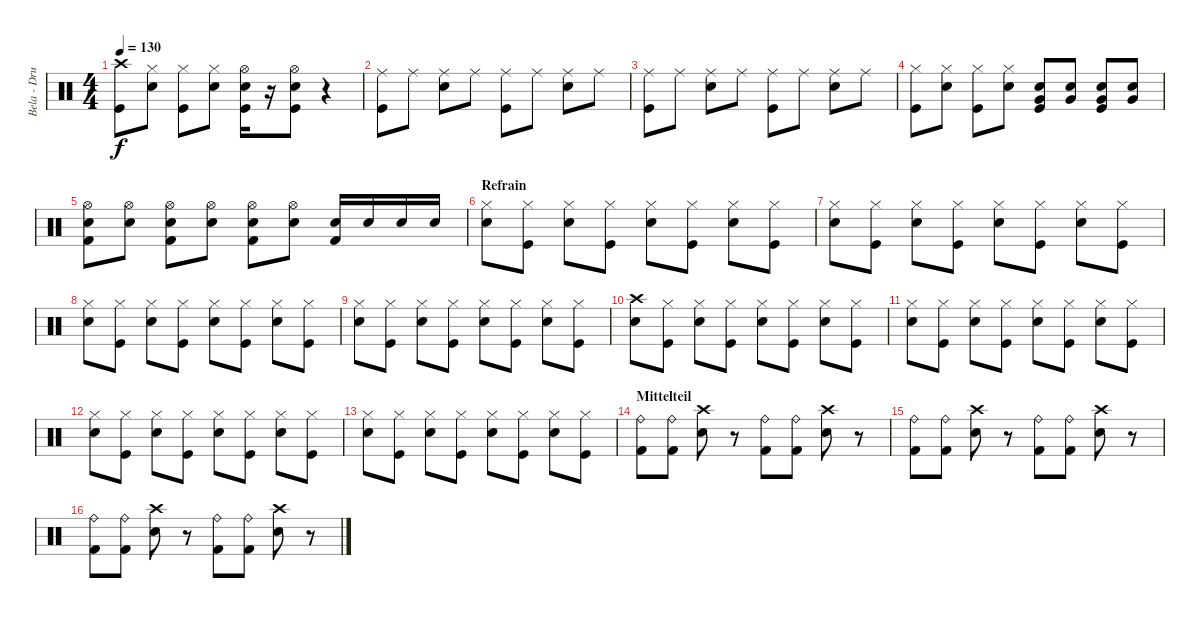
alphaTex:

\track ("Bela - Drums" "Bela - Dru") {instrument percussion}
\staff {score}
\articulation defaults
\ts (4 4)
\tempo 130
\clef neutral
\ks c
("Crash high (hit)" "Kick (hit)").8{dy f} ("Hi-Hat (closed)" "Electric Snare (hit)").8 ("Hi-Hat (closed)" "Kick (hit)").8 ("Hi-Hat (closed)" "Electric Snare (hit)").8 ("Hi-Hat (open)" "Electric Snare (hit)" "Kick (hit)").16 r.16 ("Hi-Hat (open)" "Electric Snare (hit)" "Kick (hit)").8 r.4 |
("Ride (middle)" "Kick (hit)").8 "Ride (middle)".8 ("Ride (middle)" "Electric Snare (hit)").8 "Ride (middle)".8 ("Ride (middle)" "Kick (hit)").8 "Ride (middle)".8 ("Ride (middle)" "Electric Snare (hit)").8 "Ride (middle)".8 |
("Ride (middle)" "Kick (hit)").8 "Ride (middle)".8 ("Ride (middle)" "Electric Snare (hit)").8 "Ride (middle)".8 ("Ride (middle)" "Kick (hit)").8 "Ride (middle)".8 ("Ride (middle)" "Electric Snare (hit)").8 "Ride (middle)".8 |
("Hi-Hat (closed)" "Kick (hit)").8 ("Hi-Hat (closed)" "Electric Snare (hit)").8 ("Hi-Hat (closed)" "Kick (hit)").8 ("Hi-Hat (closed)" "Electric Snare (hit)").8 ("Very Low Tom (hit)" "Electric Snare (hit)" "Kick (hit)").8 ("Very Low Tom (hit)" "Electric Snare (hit)").8 ("Very Low Tom (hit)" "Electric Snare (hit)" "Kick (hit)").8 ("Very Low Tom (hit)" "Electric Snare (hit)").8 |
("Hi-Hat (open)" "Electric Snare (hit)" "Kick (hit) 2").8 ("Hi-Hat (open)" "Electric Snare (hit)").8 ("Hi-Hat (open)" "Electric Snare (hit)" "Kick (hit) 2").8 ("Hi-Hat (open)" "Electric Snare (hit)").8 ("Hi-Hat (open)" "Electric Snare (hit)" "Kick (hit) 2").8 ("Hi-Hat (open)" "Electric Snare (hit)").8 ("Electric Snare (hit)" "Kick (hit) 2").16 "Electric Snare (hit)".16 "Electric Snare (hit)".16 "Electric Snare (hit)".16 |
\section ("" "Refrain")
("Hi-Hat (closed)" "Electric Snare (hit)").8 ("Hi-Hat (closed)" "Kick (hit)").8 ("Hi-Hat (closed)" "Electric Snare (hit)").8 ("Hi-Hat (closed)" "Kick (hit)").8 ("Hi-Hat (closed)" "Electric Snare (hit)").8 ("Hi-Hat (closed)" "Kick (hit)").8 ("Hi-Hat (closed)" "Electric Snare (hit)").8 ("Hi-Hat (closed)" "Kick (hit)").8 |
("Hi-Hat (closed)" "Electric Snare (hit)").8 ("Hi-Hat (closed)" "Kick (hit)").8 ("Hi-Hat (closed)" "Electric Snare (hit)").8 ("Hi-Hat (closed)" "Kick (hit)").8 ("Hi-Hat (closed)" "Electric Snare (hit)").8 ("Hi-Hat (closed)" "Kick (hit)").8 ("Hi-Hat (closed)" "Electric Snare (hit)").8 ("Hi-Hat (closed)" "Kick (hit)").8 |
("Hi-Hat (closed)" "Electric Snare (hit)").8 ("Hi-Hat (closed)" "Kick (hit)").8 ("Hi-Hat (closed)" "Electric Snare (hit)").8 ("Hi-Hat (closed)" "Kick (hit)").8 ("Hi-Hat (closed)" "Electric Snare (hit)").8 ("Hi-Hat (closed)" "Kick (hit)").8 ("Hi-Hat (closed)" "Electric Snare (hit)").8 ("Hi-Hat (closed)" "Kick (hit)").8 |
("Hi-Hat (closed)" "Electric Snare (hit)").8 ("Hi-Hat (closed)" "Kick (hit)").8 ("Hi-Hat (closed)" "Electric Snare (hit)").8 ("Hi-Hat (closed)" "Kick (hit)").8 ("Hi-Hat (closed)" "Electric Snare (hit)").8 ("Hi-Hat (closed)" "Kick (hit)").8 ("Hi-Hat (closed)" "Electric Snare (hit)").8 ("Hi-Hat (closed)" "Kick (hit)").8 |
("Crash high (hit)" "Electric Snare (hit)").8 ("Hi-Hat (closed)" "Kick (hit)").8 ("Hi-Hat (closed)" "Electric Snare (hit)").8 ("Hi-Hat (closed)" "Kick (hit)").8 ("Hi-Hat (closed)" "Electric Snare (hit)").8 ("Hi-Hat (closed)" "Kick (hit)").8 ("Hi-Hat (closed)" "Electric Snare (hit)").8 ("Hi-Hat (closed)" "Kick (hit)").8 |
("Hi-Hat (closed)" "Electric Snare (hit)").8 ("Hi-Hat (closed)" "Kick (hit)").8 ("Hi-Hat (closed)" "Electric Snare (hit)").8 ("Hi-Hat (closed)" "Kick (hit)").8 ("Hi-Hat (closed)" "Electric Snare (hit)").8 ("Hi-Hat (closed)" "Kick (hit)").8 ("Hi-Hat (closed)" "Electric Snare (hit)").8 ("Hi-Hat (closed)" "Kick (hit)").8 |
("Hi-Hat (closed)" "Electric Snare (hit)").8 ("Hi-Hat (closed)" "Kick (hit)").8 ("Hi-Hat (closed)" "Electric Snare (hit)").8 ("Hi-Hat (closed)" "Kick (hit)").8 ("Hi-Hat (closed)" "Electric Snare (hit)").8 ("Hi-Hat (closed)" "Kick (hit)").8 ("Hi-Hat (closed)" "Electric Snare (hit)").8 ("Hi-Hat (closed)" "Kick (hit)").8 |
("Hi-Hat (closed)" "Electric Snare (hit)").8 ("Hi-Hat (closed)" "Kick (hit)").8 ("Hi-Hat (closed)" "Electric Snare (hit)").8 ("Hi-Hat (closed)" "Kick (hit)").8 ("Hi-Hat (closed)" "Electric Snare (hit)").8 ("Hi-Hat (closed)" "Kick (hit)").8 ("Hi-Hat (closed)" "Electric Snare (hit)").8 ("Hi-Hat (closed)" "Kick (hit)").8 |
\section ("" "Mittelteil")
("Ride (bell)" "Kick (hit) 2").8 ("Ride (bell)" "Kick (hit) 2").8 ("Crash high (hit)" "Electric Snare (hit)").8 r.8 ("Ride (bell)" "Kick (hit) 2").8 ("Ride (bell)" "Kick (hit) 2").8 ("Crash high (hit)" "Electric Snare (hit)").8 r.8 |
("Ride (bell)" "Kick (hit) 2").8 ("Ride (bell)" "Kick (hit) 2").8 ("Crash high (hit)" "Electric Snare (hit)").8 r.8 ("Ride (bell)" "Kick (hit) 2").8 ("Ride (bell)" "Kick (hit) 2").8 ("Crash high (hit)" "Electric Snare (hit)").8 r.8 |
("Ride (bell)" "Kick (hit) 2").8 ("Ride (bell)" "Kick (hit) 2").8 ("Crash high (hit)" "Electric Snare (hit)").8 r.8 ("Ride (bell)" "Kick (hit) 2").8 ("Ride (bell)" "Kick (hit) 2").8 ("Crash high (hit)" "Electric Snare (hit)").8 r.8
